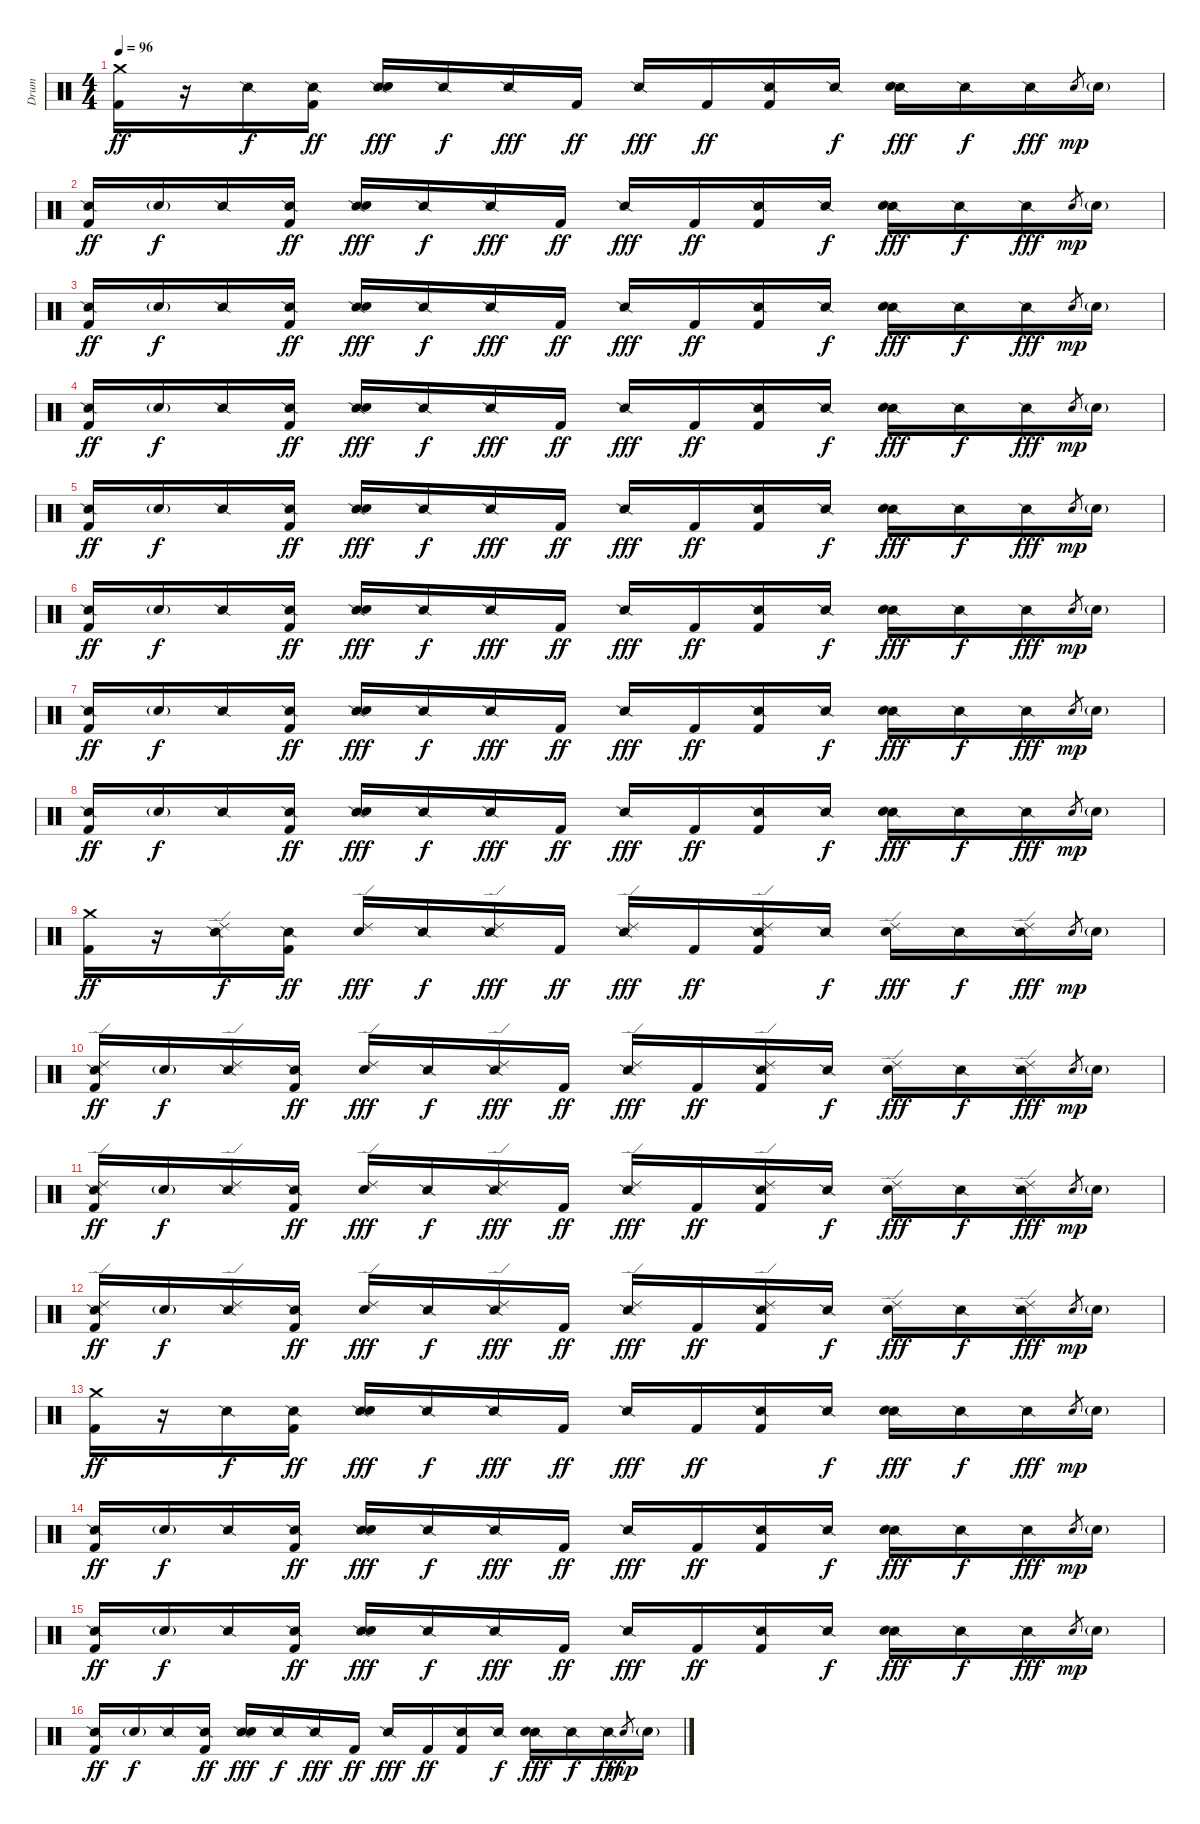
\track ("Drum" "Drum") {instrument percussion}
\staff {score}
\articulation defaults
\ts (4 4)
\tempo 96
\clef neutral
\ks c
("Crash medium (hit)" "Kick (hit) 2").16{dy ff} r.16 "Snare (side stick) 2".16{dy f} ("Snare (side stick) 2" "Kick (hit) 2").16{dy ff} ("Snare (side stick) 2" "Snare (hit) 2").16{dy fff} "Snare (side stick) 2".16{dy f} "Snare (side stick) 2".16{dy fff} "Kick (hit) 2".16{dy ff} "Snare (side stick) 2".16{dy fff} "Kick (hit) 2".16{dy ff} ("Snare (side stick) 2" "Kick (hit) 2").16 "Snare (side stick) 2".16{dy f} ("Snare (side stick) 2" "Snare (hit) 2").16{dy fff} "Snare (side stick) 2".16{dy f} "Snare (side stick) 2".16{dy fff} "Snare (hit) 2".8{gr dy mp} "Snare (hit) 2"{g}.16 |
("Snare (side stick) 2" "Kick (hit) 2").16{dy ff} "Snare (hit) 2"{g}.16{dy f} "Snare (side stick) 2".16 ("Snare (side stick) 2" "Kick (hit) 2").16{dy ff} ("Snare (side stick) 2" "Snare (hit) 2").16{dy fff} "Snare (side stick) 2".16{dy f} "Snare (side stick) 2".16{dy fff} "Kick (hit) 2".16{dy ff} "Snare (side stick) 2".16{dy fff} "Kick (hit) 2".16{dy ff} ("Snare (side stick) 2" "Kick (hit) 2").16 "Snare (side stick) 2".16{dy f} ("Snare (side stick) 2" "Snare (hit) 2").16{dy fff} "Snare (side stick) 2".16{dy f} "Snare (side stick) 2".16{dy fff} "Snare (hit) 2".8{gr dy mp} "Snare (hit) 2"{g}.16 |
("Snare (side stick) 2" "Kick (hit) 2").16{dy ff} "Snare (hit) 2"{g}.16{dy f} "Snare (side stick) 2".16 ("Snare (side stick) 2" "Kick (hit) 2").16{dy ff} ("Snare (side stick) 2" "Snare (hit) 2").16{dy fff} "Snare (side stick) 2".16{dy f} "Snare (side stick) 2".16{dy fff} "Kick (hit) 2".16{dy ff} "Snare (side stick) 2".16{dy fff} "Kick (hit) 2".16{dy ff} ("Snare (side stick) 2" "Kick (hit) 2").16 "Snare (side stick) 2".16{dy f} ("Snare (side stick) 2" "Snare (hit) 2").16{dy fff} "Snare (side stick) 2".16{dy f} "Snare (side stick) 2".16{dy fff} "Snare (hit) 2".8{gr dy mp} "Snare (hit) 2"{g}.16 |
("Snare (side stick) 2" "Kick (hit) 2").16{dy ff} "Snare (hit) 2"{g}.16{dy f} "Snare (side stick) 2".16 ("Snare (side stick) 2" "Kick (hit) 2").16{dy ff} ("Snare (side stick) 2" "Snare (hit) 2").16{dy fff} "Snare (side stick) 2".16{dy f} "Snare (side stick) 2".16{dy fff} "Kick (hit) 2".16{dy ff} "Snare (side stick) 2".16{dy fff} "Kick (hit) 2".16{dy ff} ("Snare (side stick) 2" "Kick (hit) 2").16 "Snare (side stick) 2".16{dy f} ("Snare (side stick) 2" "Snare (hit) 2").16{dy fff} "Snare (side stick) 2".16{dy f} "Snare (side stick) 2".16{dy fff} "Snare (hit) 2".8{gr dy mp} "Snare (hit) 2"{g}.16 |
("Snare (side stick) 2" "Kick (hit) 2").16{dy ff} "Snare (hit) 2"{g}.16{dy f} "Snare (side stick) 2".16 ("Snare (side stick) 2" "Kick (hit) 2").16{dy ff} ("Snare (side stick) 2" "Snare (hit) 2").16{dy fff} "Snare (side stick) 2".16{dy f} "Snare (side stick) 2".16{dy fff} "Kick (hit) 2".16{dy ff} "Snare (side stick) 2".16{dy fff} "Kick (hit) 2".16{dy ff} ("Snare (side stick) 2" "Kick (hit) 2").16 "Snare (side stick) 2".16{dy f} ("Snare (side stick) 2" "Snare (hit) 2").16{dy fff} "Snare (side stick) 2".16{dy f} "Snare (side stick) 2".16{dy fff} "Snare (hit) 2".8{gr dy mp} "Snare (hit) 2"{g}.16 |
("Snare (side stick) 2" "Kick (hit) 2").16{dy ff} "Snare (hit) 2"{g}.16{dy f} "Snare (side stick) 2".16 ("Snare (side stick) 2" "Kick (hit) 2").16{dy ff} ("Snare (side stick) 2" "Snare (hit) 2").16{dy fff} "Snare (side stick) 2".16{dy f} "Snare (side stick) 2".16{dy fff} "Kick (hit) 2".16{dy ff} "Snare (side stick) 2".16{dy fff} "Kick (hit) 2".16{dy ff} ("Snare (side stick) 2" "Kick (hit) 2").16 "Snare (side stick) 2".16{dy f} ("Snare (side stick) 2" "Snare (hit) 2").16{dy fff} "Snare (side stick) 2".16{dy f} "Snare (side stick) 2".16{dy fff} "Snare (hit) 2".8{gr dy mp} "Snare (hit) 2"{g}.16 |
("Snare (side stick) 2" "Kick (hit) 2").16{dy ff} "Snare (hit) 2"{g}.16{dy f} "Snare (side stick) 2".16 ("Snare (side stick) 2" "Kick (hit) 2").16{dy ff} ("Snare (side stick) 2" "Snare (hit) 2").16{dy fff} "Snare (side stick) 2".16{dy f} "Snare (side stick) 2".16{dy fff} "Kick (hit) 2".16{dy ff} "Snare (side stick) 2".16{dy fff} "Kick (hit) 2".16{dy ff} ("Snare (side stick) 2" "Kick (hit) 2").16 "Snare (side stick) 2".16{dy f} ("Snare (side stick) 2" "Snare (hit) 2").16{dy fff} "Snare (side stick) 2".16{dy f} "Snare (side stick) 2".16{dy fff} "Snare (hit) 2".8{gr dy mp} "Snare (hit) 2"{g}.16 |
("Snare (side stick) 2" "Kick (hit) 2").16{dy ff} "Snare (hit) 2"{g}.16{dy f} "Snare (side stick) 2".16 ("Snare (side stick) 2" "Kick (hit) 2").16{dy ff} ("Snare (side stick) 2" "Snare (hit) 2").16{dy fff} "Snare (side stick) 2".16{dy f} "Snare (side stick) 2".16{dy fff} "Kick (hit) 2".16{dy ff} "Snare (side stick) 2".16{dy fff} "Kick (hit) 2".16{dy ff} ("Snare (side stick) 2" "Kick (hit) 2").16 "Snare (side stick) 2".16{dy f} ("Snare (side stick) 2" "Snare (hit) 2").16{dy fff} "Snare (side stick) 2".16{dy f} "Snare (side stick) 2".16{dy fff} "Snare (hit) 2".8{gr dy mp} "Snare (hit) 2"{g}.16 |
("Crash medium (hit)" "Kick (hit) 2").16{dy ff} r.16 ("Snare (side stick) 2" "Ride (edge) 2").16{dy f} ("Snare (side stick) 2" "Kick (hit) 2").16{dy ff} ("Ride (edge) 2" "Snare (hit) 2").16{dy fff} "Snare (side stick) 2".16{dy f} ("Snare (side stick) 2" "Ride (edge) 2").16{dy fff} "Kick (hit) 2".16{dy ff} ("Snare (side stick) 2" "Ride (edge) 2").16{dy fff} "Kick (hit) 2".16{dy ff} ("Snare (side stick) 2" "Ride (edge) 2" "Kick (hit) 2").16 "Snare (side stick) 2".16{dy f} ("Ride (edge) 2" "Snare (hit) 2").16{dy fff} "Snare (side stick) 2".16{dy f} ("Snare (side stick) 2" "Ride (edge) 2").16{dy fff} "Snare (hit) 2".8{gr dy mp} "Snare (hit) 2"{g}.16 |
("Snare (side stick) 2" "Ride (edge) 2" "Kick (hit) 2").16{dy ff} "Snare (hit) 2"{g}.16{dy f} ("Snare (side stick) 2" "Ride (edge) 2").16 ("Snare (side stick) 2" "Kick (hit) 2").16{dy ff} ("Ride (edge) 2" "Snare (hit) 2").16{dy fff} "Snare (side stick) 2".16{dy f} ("Snare (side stick) 2" "Ride (edge) 2").16{dy fff} "Kick (hit) 2".16{dy ff} ("Snare (side stick) 2" "Ride (edge) 2").16{dy fff} "Kick (hit) 2".16{dy ff} ("Snare (side stick) 2" "Ride (edge) 2" "Kick (hit) 2").16 "Snare (side stick) 2".16{dy f} ("Ride (edge) 2" "Snare (hit) 2").16{dy fff} "Snare (side stick) 2".16{dy f} ("Snare (side stick) 2" "Ride (edge) 2").16{dy fff} "Snare (hit) 2".8{gr dy mp} "Snare (hit) 2"{g}.16 |
("Snare (side stick) 2" "Ride (edge) 2" "Kick (hit) 2").16{dy ff} "Snare (hit) 2"{g}.16{dy f} ("Snare (side stick) 2" "Ride (edge) 2").16 ("Snare (side stick) 2" "Kick (hit) 2").16{dy ff} ("Ride (edge) 2" "Snare (hit) 2").16{dy fff} "Snare (side stick) 2".16{dy f} ("Snare (side stick) 2" "Ride (edge) 2").16{dy fff} "Kick (hit) 2".16{dy ff} ("Snare (side stick) 2" "Ride (edge) 2").16{dy fff} "Kick (hit) 2".16{dy ff} ("Snare (side stick) 2" "Ride (edge) 2" "Kick (hit) 2").16 "Snare (side stick) 2".16{dy f} ("Ride (edge) 2" "Snare (hit) 2").16{dy fff} "Snare (side stick) 2".16{dy f} ("Snare (side stick) 2" "Ride (edge) 2").16{dy fff} "Snare (hit) 2".8{gr dy mp} "Snare (hit) 2"{g}.16 |
("Snare (side stick) 2" "Ride (edge) 2" "Kick (hit) 2").16{dy ff} "Snare (hit) 2"{g}.16{dy f} ("Snare (side stick) 2" "Ride (edge) 2").16 ("Snare (side stick) 2" "Kick (hit) 2").16{dy ff} ("Ride (edge) 2" "Snare (hit) 2").16{dy fff} "Snare (side stick) 2".16{dy f} ("Snare (side stick) 2" "Ride (edge) 2").16{dy fff} "Kick (hit) 2".16{dy ff} ("Snare (side stick) 2" "Ride (edge) 2").16{dy fff} "Kick (hit) 2".16{dy ff} ("Snare (side stick) 2" "Ride (edge) 2" "Kick (hit) 2").16 "Snare (side stick) 2".16{dy f} ("Ride (edge) 2" "Snare (hit) 2").16{dy fff} "Snare (side stick) 2".16{dy f} ("Snare (side stick) 2" "Ride (edge) 2").16{dy fff} "Snare (hit) 2".8{gr dy mp} "Snare (hit) 2"{g}.16 |
("Crash medium (hit)" "Kick (hit) 2").16{dy ff} r.16 "Snare (side stick) 2".16{dy f} ("Snare (side stick) 2" "Kick (hit) 2").16{dy ff} ("Snare (side stick) 2" "Snare (hit) 2").16{dy fff} "Snare (side stick) 2".16{dy f} "Snare (side stick) 2".16{dy fff} "Kick (hit) 2".16{dy ff} "Snare (side stick) 2".16{dy fff} "Kick (hit) 2".16{dy ff} ("Snare (side stick) 2" "Kick (hit) 2").16 "Snare (side stick) 2".16{dy f} ("Snare (side stick) 2" "Snare (hit) 2").16{dy fff} "Snare (side stick) 2".16{dy f} "Snare (side stick) 2".16{dy fff} "Snare (hit) 2".8{gr dy mp} "Snare (hit) 2"{g}.16 |
("Snare (side stick) 2" "Kick (hit) 2").16{dy ff} "Snare (hit) 2"{g}.16{dy f} "Snare (side stick) 2".16 ("Snare (side stick) 2" "Kick (hit) 2").16{dy ff} ("Snare (side stick) 2" "Snare (hit) 2").16{dy fff} "Snare (side stick) 2".16{dy f} "Snare (side stick) 2".16{dy fff} "Kick (hit) 2".16{dy ff} "Snare (side stick) 2".16{dy fff} "Kick (hit) 2".16{dy ff} ("Snare (side stick) 2" "Kick (hit) 2").16 "Snare (side stick) 2".16{dy f} ("Snare (side stick) 2" "Snare (hit) 2").16{dy fff} "Snare (side stick) 2".16{dy f} "Snare (side stick) 2".16{dy fff} "Snare (hit) 2".8{gr dy mp} "Snare (hit) 2"{g}.16 |
("Snare (side stick) 2" "Kick (hit) 2").16{dy ff} "Snare (hit) 2"{g}.16{dy f} "Snare (side stick) 2".16 ("Snare (side stick) 2" "Kick (hit) 2").16{dy ff} ("Snare (side stick) 2" "Snare (hit) 2").16{dy fff} "Snare (side stick) 2".16{dy f} "Snare (side stick) 2".16{dy fff} "Kick (hit) 2".16{dy ff} "Snare (side stick) 2".16{dy fff} "Kick (hit) 2".16{dy ff} ("Snare (side stick) 2" "Kick (hit) 2").16 "Snare (side stick) 2".16{dy f} ("Snare (side stick) 2" "Snare (hit) 2").16{dy fff} "Snare (side stick) 2".16{dy f} "Snare (side stick) 2".16{dy fff} "Snare (hit) 2".8{gr dy mp} "Snare (hit) 2"{g}.16 |
("Snare (side stick) 2" "Kick (hit) 2").16{dy ff} "Snare (hit) 2"{g}.16{dy f} "Snare (side stick) 2".16 ("Snare (side stick) 2" "Kick (hit) 2").16{dy ff} ("Snare (side stick) 2" "Snare (hit) 2").16{dy fff} "Snare (side stick) 2".16{dy f} "Snare (side stick) 2".16{dy fff} "Kick (hit) 2".16{dy ff} "Snare (side stick) 2".16{dy fff} "Kick (hit) 2".16{dy ff} ("Snare (side stick) 2" "Kick (hit) 2").16 "Snare (side stick) 2".16{dy f} ("Snare (side stick) 2" "Snare (hit) 2").16{dy fff} "Snare (side stick) 2".16{dy f} "Snare (side stick) 2".16{dy fff} "Snare (hit) 2".8{gr dy mp} "Snare (hit) 2"{g}.16
